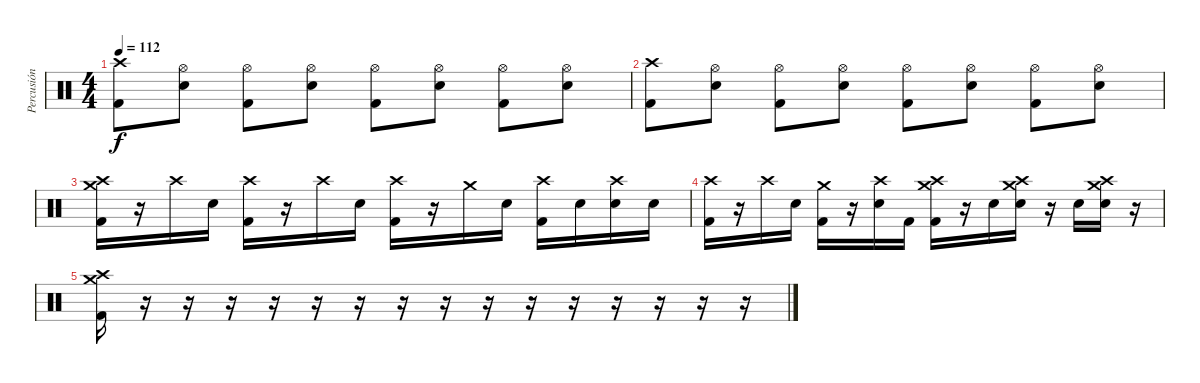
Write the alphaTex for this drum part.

\track ("Percusión" "Percusión") {instrument percussion}
\staff {score}
\articulation defaults
\ts (4 4)
\tempo 112
\clef neutral
\ks c
("Crash high (hit)" "Kick (hit) 2").8{dy f} ("Hi-Hat (open)" "Electric Snare (hit)").8 ("Hi-Hat (open)" "Kick (hit) 2").8 ("Hi-Hat (open)" "Electric Snare (hit)").8 ("Hi-Hat (open)" "Kick (hit) 2").8 ("Hi-Hat (open)" "Electric Snare (hit)").8 ("Hi-Hat (open)" "Kick (hit) 2").8 ("Hi-Hat (open)" "Electric Snare (hit)").8 |
("Crash high (hit)" "Kick (hit) 2").8 ("Hi-Hat (open)" "Electric Snare (hit)").8 ("Hi-Hat (open)" "Kick (hit) 2").8 ("Hi-Hat (open)" "Electric Snare (hit)").8 ("Hi-Hat (open)" "Kick (hit) 2").8 ("Hi-Hat (open)" "Electric Snare (hit)").8 ("Hi-Hat (open)" "Kick (hit) 2").8 ("Hi-Hat (open)" "Electric Snare (hit)").8 |
("Crash medium (hit)" "Crash high (hit)" "Kick (hit) 2").16 r.16 "Crash high (hit)".16 "Electric Snare (hit)".16 ("Crash high (hit)" "Kick (hit) 2").16 r.16 "Crash high (hit)".16 "Electric Snare (hit)".16 ("Crash high (hit)" "Kick (hit) 2").16 r.16 "Crash medium (hit)".16 "Electric Snare (hit)".16 ("Crash high (hit)" "Kick (hit) 2").16 "Electric Snare (hit)".16 ("Crash high (hit)" "Electric Snare (hit)").16 "Electric Snare (hit)".16 |
("Crash high (hit)" "Kick (hit) 2").16 r.16 "Crash high (hit)".16 "Electric Snare (hit)".16 ("Crash medium (hit)" "Kick (hit) 2").16 r.16 ("Crash high (hit)" "Electric Snare (hit)").16 "Kick (hit) 2".16 ("Crash high (hit)" "Kick (hit) 2" "Crash medium (hit)").16 r.16 "Electric Snare (hit)".16 ("Crash high (hit)" "Electric Snare (hit)" "Crash medium (hit)").16 r.16 "Electric Snare (hit)".16 ("Crash medium (hit)" "Electric Snare (hit)" "Crash high (hit)").16 r.16 |
("Crash high (hit)" "Kick (hit) 2" "Crash medium (hit)").16 r.16 r.16 r.16 r.16 r.16 r.16 r.16 r.16 r.16 r.16 r.16 r.16 r.16 r.16 r.16
